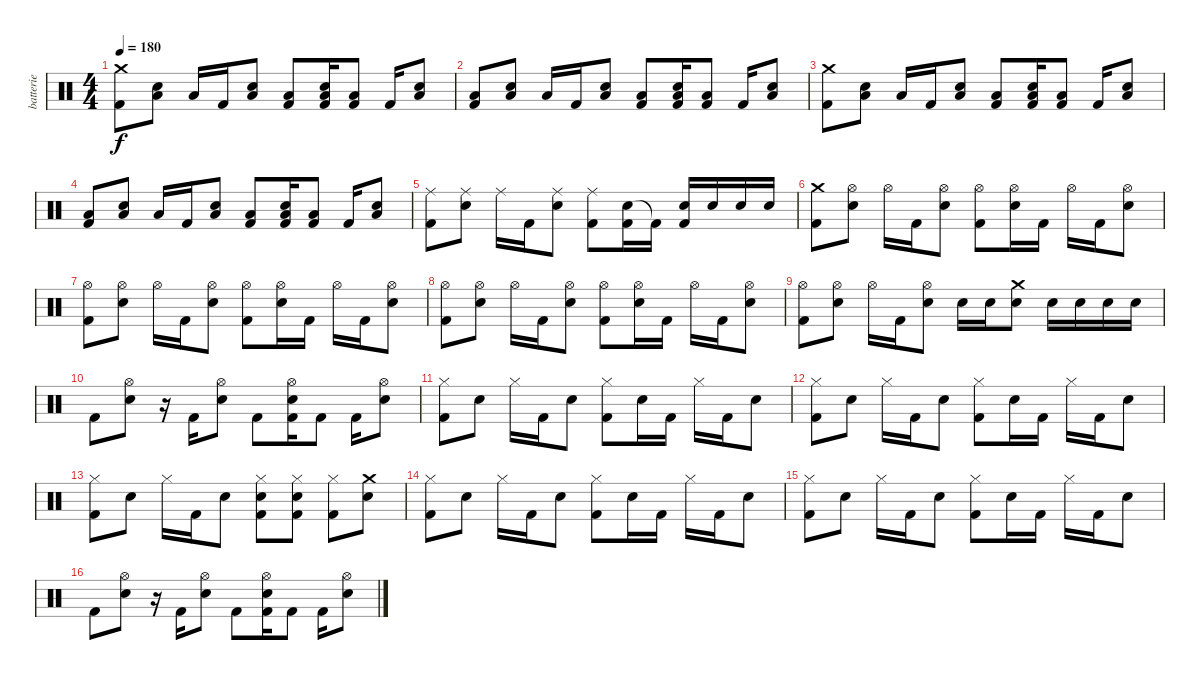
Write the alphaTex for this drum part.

\track ("batterie" "batterie") {instrument percussion}
\staff {score}
\articulation defaults
\ts (4 4)
\tempo 180
\clef neutral
\ks c
("Crash medium (hit)" "Kick (hit) 2").8{dy f} ("Low Tom (hit)" "Electric Snare (hit)").8 "Low Tom (hit)".16 "Kick (hit) 2".16 ("Low Tom (hit)" "Electric Snare (hit)").8 ("Low Tom (hit)" "Kick (hit) 2").8 ("Low Tom (hit)" "Electric Snare (hit)" "Kick (hit) 2").16 ("Low Tom (hit)" "Kick (hit) 2").8 "Kick (hit) 2".16 ("Low Tom (hit)" "Electric Snare (hit)").8 |
("Low Tom (hit)" "Kick (hit) 2").8 ("Low Tom (hit)" "Electric Snare (hit)").8 "Low Tom (hit)".16 "Kick (hit) 2".16 ("Low Tom (hit)" "Electric Snare (hit)").8 ("Low Tom (hit)" "Kick (hit) 2").8 ("Low Tom (hit)" "Electric Snare (hit)" "Kick (hit) 2").16 ("Low Tom (hit)" "Kick (hit) 2").8 "Kick (hit) 2".16 ("Low Tom (hit)" "Electric Snare (hit)").8 |
("Crash medium (hit)" "Kick (hit) 2").8 ("Low Tom (hit)" "Electric Snare (hit)").8 "Low Tom (hit)".16 "Kick (hit) 2".16 ("Low Tom (hit)" "Electric Snare (hit)").8 ("Low Tom (hit)" "Kick (hit) 2").8 ("Low Tom (hit)" "Electric Snare (hit)" "Kick (hit) 2").16 ("Low Tom (hit)" "Kick (hit) 2").8 "Kick (hit) 2".16 ("Low Tom (hit)" "Electric Snare (hit)").8 |
("Low Tom (hit)" "Kick (hit) 2").8 ("Low Tom (hit)" "Electric Snare (hit)").8 "Low Tom (hit)".16 "Kick (hit) 2".16 ("Low Tom (hit)" "Electric Snare (hit)").8 ("Low Tom (hit)" "Kick (hit) 2").8 ("Low Tom (hit)" "Electric Snare (hit)" "Kick (hit) 2").16 ("Low Tom (hit)" "Kick (hit) 2").8 "Kick (hit) 2".16 ("Low Tom (hit)" "Electric Snare (hit)").8 |
("Ride (middle)" "Kick (hit) 2").8 ("Ride (middle)" "Electric Snare (hit)").8 "Ride (middle)".16 "Kick (hit) 2".16 ("Ride (middle)" "Electric Snare (hit)").8 ("Ride (middle)" "Kick (hit) 2").8 ("Electric Snare (hit)" "Kick (hit) 2").16 "Kick (hit) 2"{t}.16 ("Electric Snare (hit)" "Kick (hit) 2").16 "Electric Snare (hit)".16 "Electric Snare (hit)".16 "Electric Snare (hit)".16 |
("Crash medium (hit)" "Kick (hit) 2").8 ("Hi-Hat (open)" "Electric Snare (hit)").8 "Hi-Hat (open)".16 "Kick (hit) 2".16 ("Hi-Hat (open)" "Electric Snare (hit)").8 ("Hi-Hat (open)" "Kick (hit) 2").8 ("Hi-Hat (open)" "Electric Snare (hit)").16 "Kick (hit) 2".16 "Hi-Hat (open)".16 "Kick (hit) 2".16 ("Hi-Hat (open)" "Electric Snare (hit)").8 |
("Hi-Hat (open)" "Kick (hit) 2").8 ("Hi-Hat (open)" "Electric Snare (hit)").8 "Hi-Hat (open)".16 "Kick (hit) 2".16 ("Hi-Hat (open)" "Electric Snare (hit)").8 ("Hi-Hat (open)" "Kick (hit) 2").8 ("Hi-Hat (open)" "Electric Snare (hit)").16 "Kick (hit) 2".16 "Hi-Hat (open)".16 "Kick (hit) 2".16 ("Hi-Hat (open)" "Electric Snare (hit)").8 |
("Hi-Hat (open)" "Kick (hit) 2").8 ("Hi-Hat (open)" "Electric Snare (hit)").8 "Hi-Hat (open)".16 "Kick (hit) 2".16 ("Hi-Hat (open)" "Electric Snare (hit)").8 ("Hi-Hat (open)" "Kick (hit) 2").8 ("Hi-Hat (open)" "Electric Snare (hit)").16 "Kick (hit) 2".16 "Hi-Hat (open)".16 "Kick (hit) 2".16 ("Hi-Hat (open)" "Electric Snare (hit)").8 |
("Hi-Hat (open)" "Kick (hit) 2").8 ("Hi-Hat (open)" "Electric Snare (hit)").8 "Hi-Hat (open)".16 "Kick (hit) 2".16 ("Hi-Hat (open)" "Electric Snare (hit)").8 "Electric Snare (hit)".16 "Electric Snare (hit)".16 ("Crash medium (hit)" "Electric Snare (hit)").8 "Electric Snare (hit)".16 "Electric Snare (hit)".16 "Electric Snare (hit)".16 "Electric Snare (hit)".16 |
"Kick (hit) 2".8 ("Hi-Hat (open)" "Electric Snare (hit)").8 r.16 "Kick (hit) 2".16 ("Hi-Hat (open)" "Electric Snare (hit)").8 "Kick (hit) 2".8 ("Hi-Hat (open)" "Electric Snare (hit)" "Kick (hit) 2").16 "Kick (hit) 2".8 "Kick (hit) 2".16 ("Hi-Hat (open)" "Electric Snare (hit)").8 |
("Hi-Hat (closed)" "Kick (hit) 2").8 "Electric Snare (hit)".8 "Hi-Hat (closed)".16 "Kick (hit) 2".16 "Electric Snare (hit)".8 ("Hi-Hat (closed)" "Kick (hit) 2").8 "Electric Snare (hit)".16 "Kick (hit) 2".16 "Hi-Hat (closed)".16 "Kick (hit) 2".16 "Electric Snare (hit)".8 |
("Hi-Hat (closed)" "Kick (hit) 2").8 "Electric Snare (hit)".8 "Hi-Hat (closed)".16 "Kick (hit) 2".16 "Electric Snare (hit)".8 ("Hi-Hat (closed)" "Kick (hit) 2").8 "Electric Snare (hit)".16 "Kick (hit) 2".16 "Hi-Hat (closed)".16 "Kick (hit) 2".16 "Electric Snare (hit)".8 |
("Hi-Hat (closed)" "Kick (hit) 2").8 "Electric Snare (hit)".8 "Hi-Hat (closed)".16 "Kick (hit) 2".16 "Electric Snare (hit)".8 ("Hi-Hat (closed)" "Electric Snare (hit)" "Kick (hit) 2").8 ("Hi-Hat (closed)" "Electric Snare (hit)" "Kick (hit) 2").8 ("Hi-Hat (closed)" "Kick (hit) 2").8 ("Crash medium (hit)" "Electric Snare (hit)").8 |
("Hi-Hat (closed)" "Kick (hit) 2").8 "Electric Snare (hit)".8 "Hi-Hat (closed)".16 "Kick (hit) 2".16 "Electric Snare (hit)".8 ("Hi-Hat (closed)" "Kick (hit) 2").8 "Electric Snare (hit)".16 "Kick (hit) 2".16 "Hi-Hat (closed)".16 "Kick (hit) 2".16 "Electric Snare (hit)".8 |
("Hi-Hat (closed)" "Kick (hit) 2").8 "Electric Snare (hit)".8 "Hi-Hat (closed)".16 "Kick (hit) 2".16 "Electric Snare (hit)".8 ("Hi-Hat (closed)" "Kick (hit) 2").8 "Electric Snare (hit)".16 "Kick (hit) 2".16 "Hi-Hat (closed)".16 "Kick (hit) 2".16 "Electric Snare (hit)".8 |
"Kick (hit) 2".8 ("Hi-Hat (open)" "Electric Snare (hit)").8 r.16 "Kick (hit) 2".16 ("Hi-Hat (open)" "Electric Snare (hit)").8 "Kick (hit) 2".8 ("Hi-Hat (open)" "Electric Snare (hit)" "Kick (hit) 2").16 "Kick (hit) 2".8 "Kick (hit) 2".16 ("Hi-Hat (open)" "Electric Snare (hit)").8
